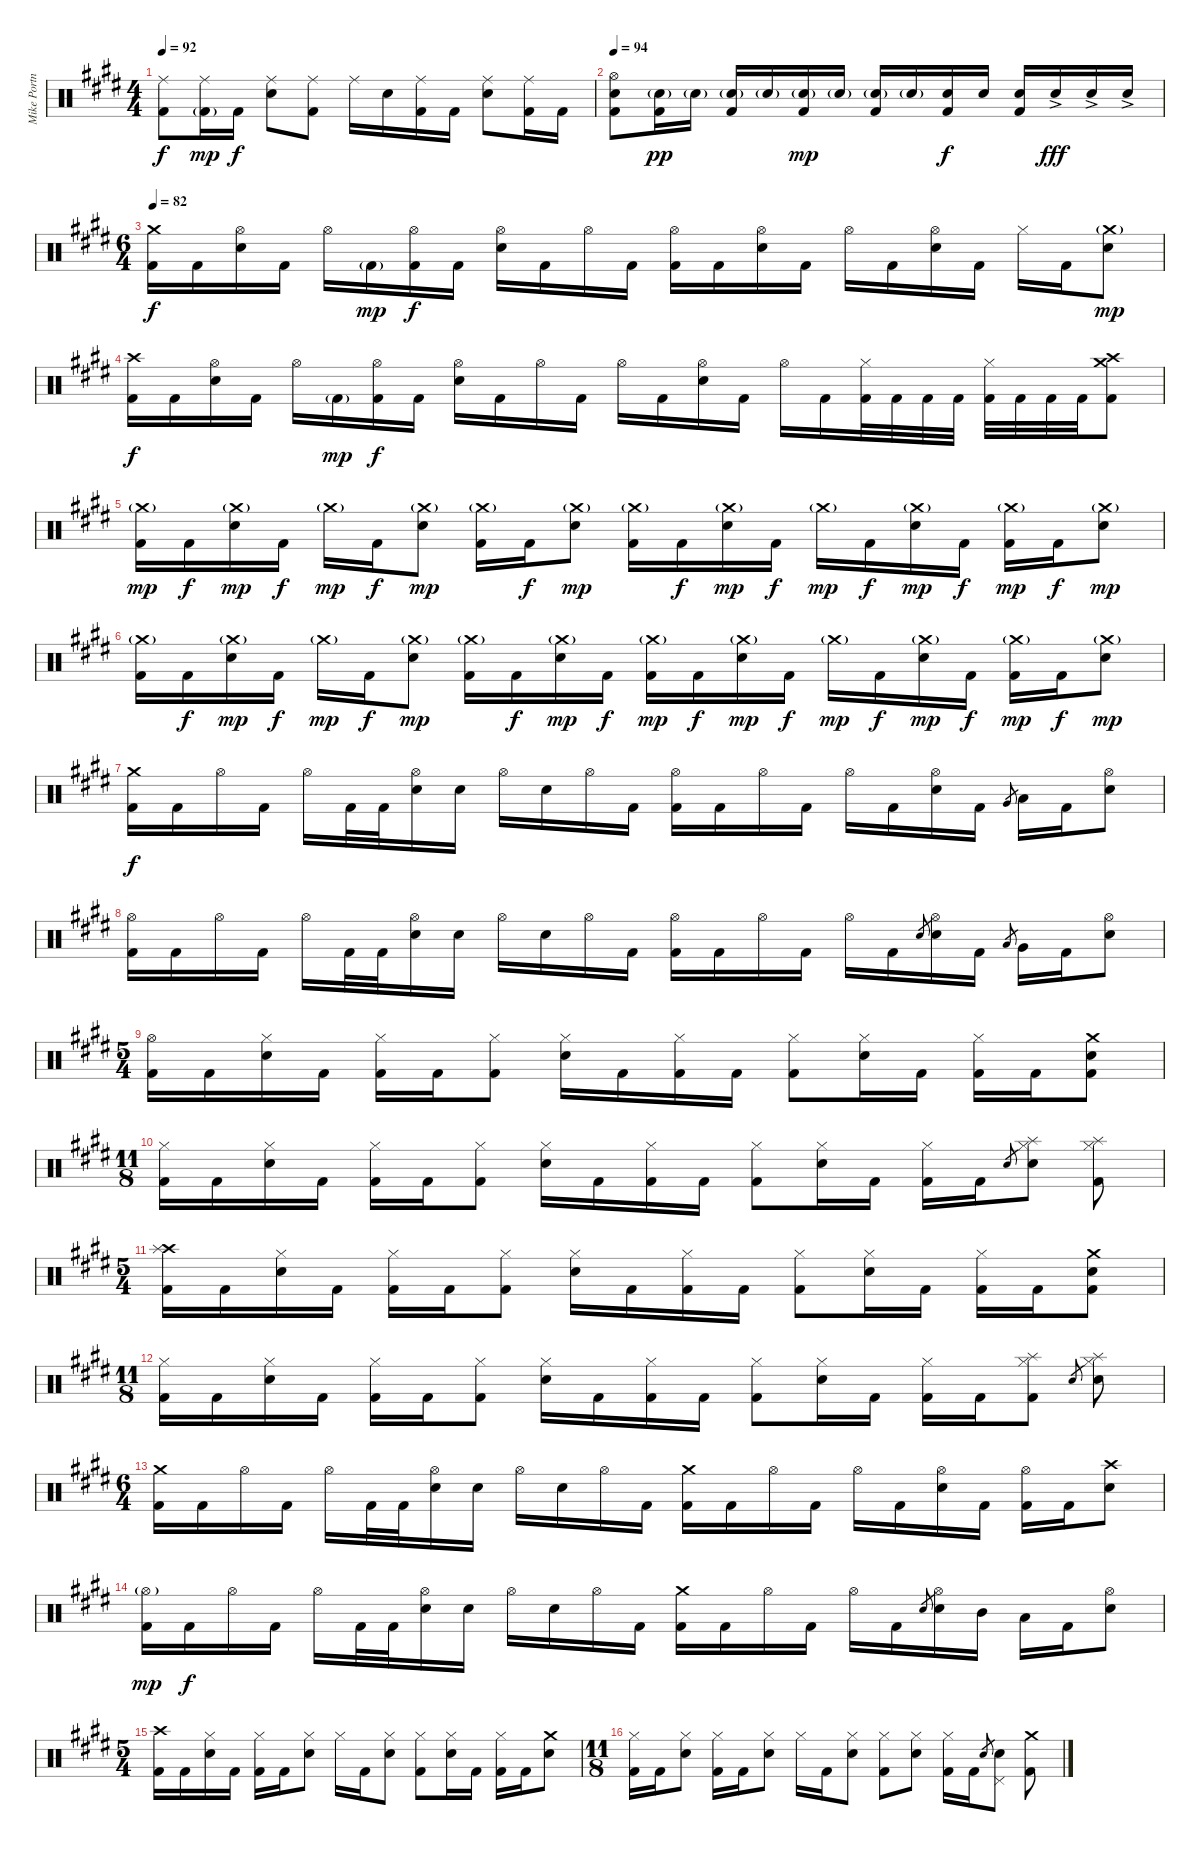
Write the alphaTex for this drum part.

\track ("Mike Portnoy" "Mike Portn") {instrument percussion}
\staff {score}
\articulation defaults
\ts (4 4)
\tempo 92
\clef neutral
\ks e
("Ride (middle)" "Kick (hit) 2").8{dy f} ("Ride (middle)" "Kick (hit) 2"{g}).16{dy mp} "Kick (hit) 2".16{dy f} ("Ride (middle)" "Snare (hit) 2").8 ("Ride (middle)" "Kick (hit) 2").8 "Ride (middle)".16 "Snare (hit) 2".16 ("Ride (middle)" "Kick (hit) 2").16 "Kick (hit) 2".16 ("Ride (middle)" "Snare (hit) 2").8 ("Ride (middle)" "Kick (hit) 2").16 "Kick (hit) 2".16 |
\tempo 94
("Hi-Hat (open)" "Snare (hit) 2" "Kick (hit) 2").8 ("Snare (hit) 2"{g} "Kick (hit) 2").16{dy pp} "Snare (hit) 2"{g}.16 ("Snare (hit) 2"{g} "Kick (hit) 2").16 "Snare (hit) 2"{g}.16 ("Snare (hit) 2"{g} "Kick (hit) 2").16{dy mp} "Snare (hit) 2"{g}.16 ("Snare (hit) 2"{g} "Kick (hit) 2").16 "Snare (hit) 2"{g}.16 ("Snare (hit) 2" "Kick (hit) 2").16{dy f} "Snare (hit) 2".16 ("Snare (hit) 2" "Kick (hit) 2").16 "Snare (hit) 2"{ac}.16{dy fff} "Snare (hit) 2"{ac}.16 "Snare (hit) 2"{ac}.16 |
\ts (6 4)
\tempo 82
("Crash medium (hit)" "Kick (hit) 2").16{dy f} "Kick (hit) 2".16 ("Hi-Hat (open)" "Snare (hit) 2").16 "Kick (hit) 2".16 "Hi-Hat (open)".16 "Kick (hit) 2"{g}.16{dy mp} ("Hi-Hat (open)" "Kick (hit) 2").16{dy f} "Kick (hit) 2".16 ("Hi-Hat (open)" "Snare (hit) 2").16 "Kick (hit) 2".16 "Hi-Hat (open)".16 "Kick (hit) 2".16 ("Hi-Hat (open)" "Kick (hit) 2").16 "Kick (hit) 2".16 ("Hi-Hat (open)" "Snare (hit) 2").16 "Kick (hit) 2".16 "Hi-Hat (open)".16 "Kick (hit) 2".16 ("Hi-Hat (open)" "Snare (hit) 2").16 "Kick (hit) 2".16 "Hi-Hat (closed)".16 "Kick (hit) 2".16 ("Crash medium (hit)"{g} "Snare (hit) 2").8{dy mp} |
("Crash high (hit)" "Kick (hit) 2").16{dy f} "Kick (hit) 2".16 ("Hi-Hat (open)" "Snare (hit) 2").16 "Kick (hit) 2".16 "Hi-Hat (open)".16 "Kick (hit) 2"{g}.16{dy mp} ("Hi-Hat (open)" "Kick (hit) 2").16{dy f} "Kick (hit) 2".16 ("Hi-Hat (open)" "Snare (hit) 2").16 "Kick (hit) 2".16 "Hi-Hat (open)".16 "Kick (hit) 2".16 "Hi-Hat (open)".16 "Kick (hit) 2".16 ("Hi-Hat (open)" "Snare (hit) 2").16 "Kick (hit) 2".16 "Hi-Hat (open)".16 "Kick (hit) 2".16 ("Hi-Hat (closed)" "Kick (hit) 2").32 "Kick (hit) 2".32 "Kick (hit) 2".32 "Kick (hit) 2".32 ("Hi-Hat (closed)" "Kick (hit) 2").32 "Kick (hit) 2".32 "Kick (hit) 2".32 "Kick (hit) 2".32 ("Crash high (hit)" "Crash medium (hit)" "Kick (hit) 2").8 |
("Crash medium (hit)"{g} "Kick (hit) 2").16{dy mp} "Kick (hit) 2".16{dy f} ("Crash medium (hit)"{g} "Snare (hit) 2").16{dy mp} "Kick (hit) 2".16{dy f} "Crash medium (hit)"{g}.16{dy mp} "Kick (hit) 2".16{dy f} ("Crash medium (hit)"{g} "Snare (hit) 2").8{dy mp} ("Crash medium (hit)"{g} "Kick (hit) 2").16 "Kick (hit) 2".16{dy f} ("Crash medium (hit)"{g} "Snare (hit) 2").8{dy mp} ("Crash medium (hit)"{g} "Kick (hit) 2").16 "Kick (hit) 2".16{dy f} ("Crash medium (hit)"{g} "Snare (hit) 2").16{dy mp} "Kick (hit) 2".16{dy f} "Crash medium (hit)"{g}.16{dy mp} "Kick (hit) 2".16{dy f} ("Crash medium (hit)"{g} "Snare (hit) 2").16{dy mp} "Kick (hit) 2".16{dy f} ("Crash medium (hit)"{g} "Kick (hit) 2").16{dy mp} "Kick (hit) 2".16{dy f} ("Crash medium (hit)"{g} "Snare (hit) 2").8{dy mp} |
("Crash medium (hit)"{g} "Kick (hit) 2").16 "Kick (hit) 2".16{dy f} ("Crash medium (hit)"{g} "Snare (hit) 2").16{dy mp} "Kick (hit) 2".16{dy f} "Crash medium (hit)"{g}.16{dy mp} "Kick (hit) 2".16{dy f} ("Crash medium (hit)"{g} "Snare (hit) 2").8{dy mp} ("Crash medium (hit)"{g} "Kick (hit) 2").16 "Kick (hit) 2".16{dy f} ("Crash medium (hit)"{g} "Snare (hit) 2").16{dy mp} "Kick (hit) 2".16{dy f} ("Crash medium (hit)"{g} "Kick (hit) 2").16{dy mp} "Kick (hit) 2".16{dy f} ("Crash medium (hit)"{g} "Snare (hit) 2").16{dy mp} "Kick (hit) 2".16{dy f} "Crash medium (hit)"{g}.16{dy mp} "Kick (hit) 2".16{dy f} ("Crash medium (hit)"{g} "Snare (hit) 2").16{dy mp} "Kick (hit) 2".16{dy f} ("Crash medium (hit)"{g} "Kick (hit) 2").16{dy mp} "Kick (hit) 2".16{dy f} ("Crash medium (hit)"{g} "Snare (hit) 2").8{dy mp} |
("Crash medium (hit)" "Kick (hit) 2").16{dy f} "Kick (hit) 2".16 "Hi-Hat (open)".16 "Kick (hit) 2".16 "Hi-Hat (open)".16 "Kick (hit) 2".32 "Kick (hit) 2".32 ("Hi-Hat (open)" "Snare (hit) 2").16 "Snare (hit) 2".16 "Hi-Hat (open)".16 "Snare (hit) 2".16 "Hi-Hat (open)".16 "Kick (hit) 2".16 ("Hi-Hat (open)" "Kick (hit) 2").16 "Kick (hit) 2".16 "Hi-Hat (open)".16 "Kick (hit) 2".16 "Hi-Hat (open)".16 "Kick (hit) 2".16 ("Hi-Hat (open)" "Snare (hit) 2").16 "Kick (hit) 2".16 "Very Low Tom (hit)".8{gr} "Low Floor Tom (hit)".16 "Kick (hit) 2".16 ("Hi-Hat (open)" "Snare (hit) 2").8 |
("Hi-Hat (open)" "Kick (hit) 2").16 "Kick (hit) 2".16 "Hi-Hat (open)".16 "Kick (hit) 2".16 "Hi-Hat (open)".16 "Kick (hit) 2".32 "Kick (hit) 2".32 ("Hi-Hat (open)" "Snare (hit) 2").16 "Snare (hit) 2".16 "Hi-Hat (open)".16 "Snare (hit) 2".16 "Hi-Hat (open)".16 "Kick (hit) 2".16 ("Hi-Hat (open)" "Kick (hit) 2").16 "Kick (hit) 2".16 "Hi-Hat (open)".16 "Kick (hit) 2".16 "Hi-Hat (open)".16 "Kick (hit) 2".16 "Snare (hit) 2".8{gr} ("Hi-Hat (open)" "Snare (hit) 2").16 "Kick (hit) 2".16 "Low Tom (hit)".8{gr} "Very Low Tom (hit)".16 "Kick (hit) 2".16 ("Hi-Hat (open)" "Snare (hit) 2").8 |
\ts (5 4)
("Hi-Hat (open)" "Kick (hit) 2").16 "Kick (hit) 2".16 ("Hi-Hat (closed)" "Snare (hit) 2").16 "Kick (hit) 2".16 ("Hi-Hat (closed)" "Kick (hit) 2").16 "Kick (hit) 2".16 ("Hi-Hat (closed)" "Kick (hit) 2").8 ("Hi-Hat (closed)" "Snare (hit) 2").16 "Kick (hit) 2".16 ("Hi-Hat (closed)" "Kick (hit) 2").16 "Kick (hit) 2".16 ("Hi-Hat (closed)" "Kick (hit) 2").8 ("Hi-Hat (closed)" "Snare (hit) 2").16 "Kick (hit) 2".16 ("Hi-Hat (closed)" "Kick (hit) 2").16 "Kick (hit) 2".16 ("Crash medium (hit)" "Snare (hit) 2" "Kick (hit) 2").8 |
\ts (11 8)
("Hi-Hat (closed)" "Kick (hit) 2").16 "Kick (hit) 2".16 ("Hi-Hat (closed)" "Snare (hit) 2").16 "Kick (hit) 2".16 ("Hi-Hat (closed)" "Kick (hit) 2").16 "Kick (hit) 2".16 ("Hi-Hat (closed)" "Kick (hit) 2").8 ("Hi-Hat (closed)" "Snare (hit) 2").16 "Kick (hit) 2".16 ("Hi-Hat (closed)" "Kick (hit) 2").16 "Kick (hit) 2".16 ("Hi-Hat (closed)" "Kick (hit) 2").8 ("Hi-Hat (closed)" "Snare (hit) 2").16 "Kick (hit) 2".16 ("Hi-Hat (closed)" "Kick (hit) 2").16 "Kick (hit) 2".16 "Snare (hit) 2".8{gr} ("Hi-Hat (closed)" "Splash (hit)" "Snare (hit) 2").8 ("Hi-Hat (closed)" "Splash (hit)" "Kick (hit) 2").8 |
\ts (5 4)
("Crash high (hit)" "Splash (hit)" "Kick (hit) 2").16 "Kick (hit) 2".16 ("Hi-Hat (closed)" "Snare (hit) 2").16 "Kick (hit) 2".16 ("Hi-Hat (closed)" "Kick (hit) 2").16 "Kick (hit) 2".16 ("Hi-Hat (closed)" "Kick (hit) 2").8 ("Hi-Hat (closed)" "Snare (hit) 2").16 "Kick (hit) 2".16 ("Hi-Hat (closed)" "Kick (hit) 2").16 "Kick (hit) 2".16 ("Hi-Hat (closed)" "Kick (hit) 2").8 ("Hi-Hat (closed)" "Snare (hit) 2").16 "Kick (hit) 2".16 ("Hi-Hat (closed)" "Kick (hit) 2").16 "Kick (hit) 2".16 ("Crash medium (hit)" "Snare (hit) 2" "Kick (hit) 2").8 |
\ts (11 8)
("Hi-Hat (closed)" "Kick (hit) 2").16 "Kick (hit) 2".16 ("Hi-Hat (closed)" "Snare (hit) 2").16 "Kick (hit) 2".16 ("Hi-Hat (closed)" "Kick (hit) 2").16 "Kick (hit) 2".16 ("Hi-Hat (closed)" "Kick (hit) 2").8 ("Hi-Hat (closed)" "Snare (hit) 2").16 "Kick (hit) 2".16 ("Hi-Hat (closed)" "Kick (hit) 2").16 "Kick (hit) 2".16 ("Hi-Hat (closed)" "Kick (hit) 2").8 ("Hi-Hat (closed)" "Snare (hit) 2").16 "Kick (hit) 2".16 ("Hi-Hat (closed)" "Kick (hit) 2").16 "Kick (hit) 2".16 ("Hi-Hat (closed)" "Splash (hit)" "Kick (hit) 2").8 "Snare (hit) 2".8{gr} ("Hi-Hat (closed)" "Splash (hit)" "Snare (hit) 2").8 |
\ts (6 4)
("Crash medium (hit)" "Kick (hit) 2").16 "Kick (hit) 2".16 "Hi-Hat (open)".16 "Kick (hit) 2".16 "Hi-Hat (open)".16 "Kick (hit) 2".32 "Kick (hit) 2".32 ("Hi-Hat (open)" "Snare (hit) 2").16 "Snare (hit) 2".16 "Hi-Hat (open)".16 "Snare (hit) 2".16 "Hi-Hat (open)".16 "Kick (hit) 2".16 ("Crash medium (hit)" "Kick (hit) 2").16 "Kick (hit) 2".16 "Hi-Hat (open)".16 "Kick (hit) 2".16 "Hi-Hat (open)".16 "Kick (hit) 2".16 ("Hi-Hat (open)" "Snare (hit) 2").16 "Kick (hit) 2".16 ("Hi-Hat (open)" "Kick (hit) 2").16 "Kick (hit) 2".16 ("Crash high (hit)" "Snare (hit) 2").8 |
("Hi-Hat (open)"{g} "Kick (hit) 2").16{dy mp} "Kick (hit) 2".16{dy f} "Hi-Hat (open)".16 "Kick (hit) 2".16 "Hi-Hat (open)".16 "Kick (hit) 2".32 "Kick (hit) 2".32 ("Hi-Hat (open)" "Snare (hit) 2").16 "Snare (hit) 2".16 "Hi-Hat (open)".16 "Snare (hit) 2".16 "Hi-Hat (open)".16 "Kick (hit) 2".16 ("Crash medium (hit)" "Kick (hit) 2").16 "Kick (hit) 2".16 "Hi-Hat (open)".16 "Kick (hit) 2".16 "Hi-Hat (open)".16 "Kick (hit) 2".16 "Snare (hit) 2".8{gr} ("Hi-Hat (open)" "Snare (hit) 2").16 "Mid Tom (hit)".16 "Low Tom (hit)".16 "Kick (hit) 2".16 ("Hi-Hat (open)" "Snare (hit) 2").8 |
\ts (5 4)
("Crash high (hit)" "Kick (hit) 2").16 "Kick (hit) 2".16 ("Hi-Hat (closed)" "Snare (hit) 2").16 "Kick (hit) 2".16 ("Hi-Hat (closed)" "Kick (hit) 2").16 "Kick (hit) 2".16 ("Hi-Hat (closed)" "Snare (hit) 2").8 "Hi-Hat (closed)".16 "Kick (hit) 2".16 ("Hi-Hat (closed)" "Snare (hit) 2").8 ("Hi-Hat (closed)" "Kick (hit) 2").8 ("Hi-Hat (closed)" "Snare (hit) 2").16 "Kick (hit) 2".16 ("Hi-Hat (closed)" "Kick (hit) 2").16 "Kick (hit) 2".16 ("Crash medium (hit)" "Snare (hit) 2").8 |
\ts (11 8)
("Hi-Hat (closed)" "Kick (hit) 2").16 "Kick (hit) 2".16 ("Hi-Hat (closed)" "Snare (hit) 2").8 ("Hi-Hat (closed)" "Kick (hit) 2").16 "Kick (hit) 2".16 ("Hi-Hat (closed)" "Snare (hit) 2").8 "Hi-Hat (closed)".16 "Kick (hit) 2".16 ("Hi-Hat (closed)" "Snare (hit) 2").8 ("Hi-Hat (closed)" "Kick (hit) 2").8 ("Hi-Hat (closed)" "Snare (hit) 2").8 ("Hi-Hat (closed)" "Kick (hit) 2").16 "Kick (hit) 2".16 "Snare (hit) 2".8{gr} ("Snare (hit) 2" "Pedal Hi-Hat (hit)").8 ("Crash medium (hit)" "Kick (hit) 2").8
